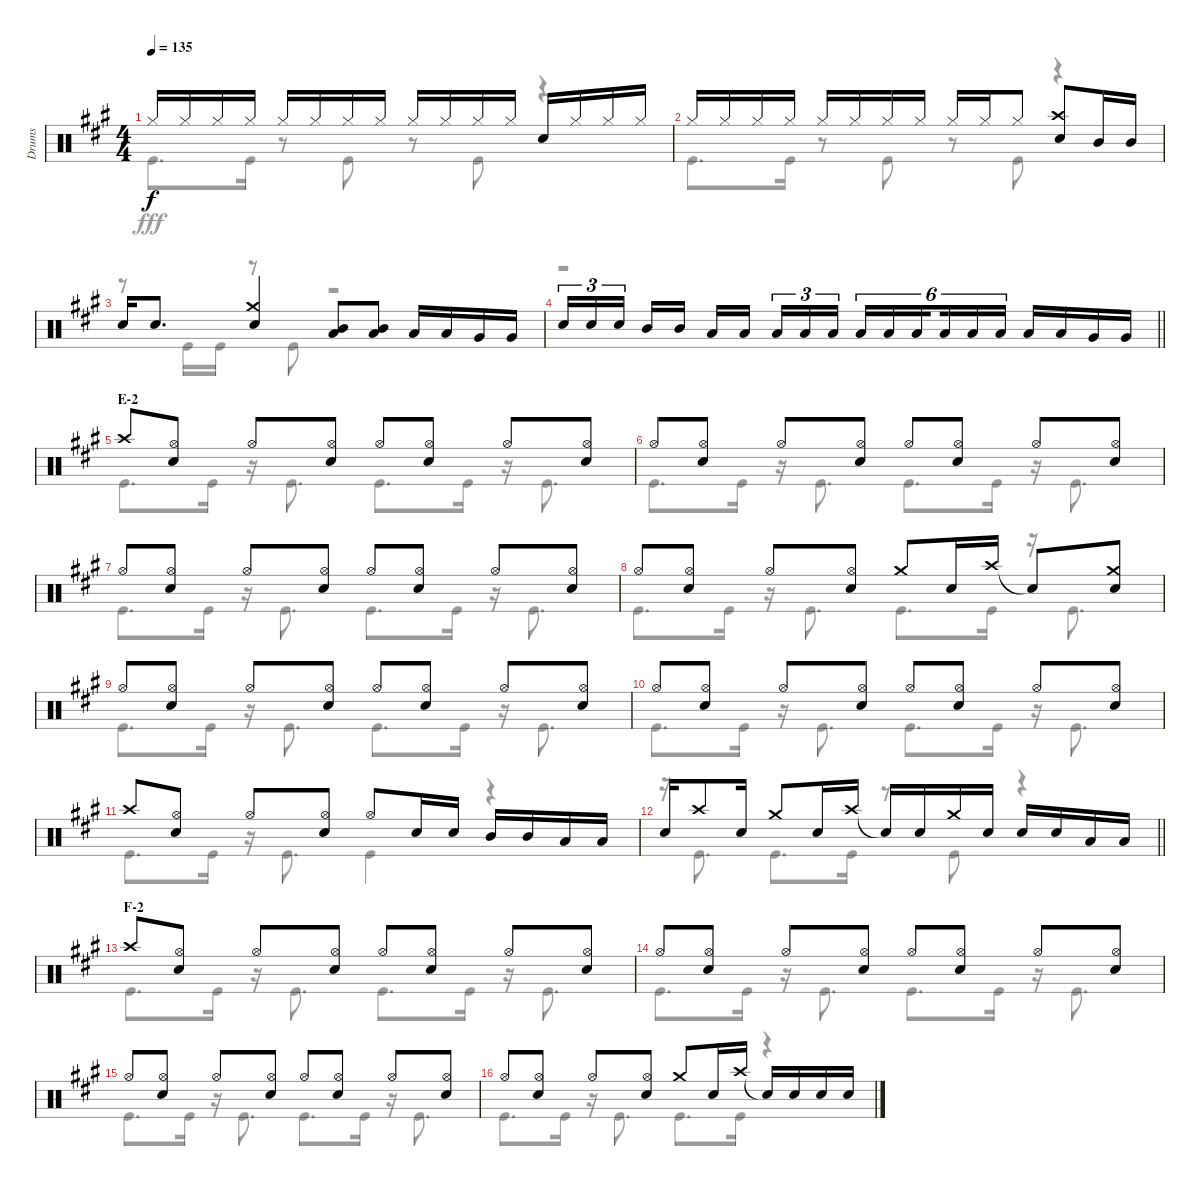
\track ("Drums" "Drums") {instrument percussion}
\staff {score}
\articulation defaults
\voice
\ts (4 4)
\tempo 135
\clef neutral
\ks a "Hi-Hat (closed)".16{dy f} "Hi-Hat (closed)".16 "Hi-Hat (closed)".16 "Hi-Hat (closed)".16 "Hi-Hat (closed)".16 "Hi-Hat (closed)".16 "Hi-Hat (closed)".16 "Hi-Hat (closed)".16 "Hi-Hat (closed)".16 "Hi-Hat (closed)".16 "Hi-Hat (closed)".16 "Hi-Hat (closed)".16 "Snare (hit) 2".16 "Hi-Hat (closed)".16 "Hi-Hat (closed)".16 "Hi-Hat (closed)".16
|
"Hi-Hat (closed)".16 "Hi-Hat (closed)".16 "Hi-Hat (closed)".16 "Hi-Hat (closed)".16 "Hi-Hat (closed)".16 "Hi-Hat (closed)".16 "Hi-Hat (closed)".16 "Hi-Hat (closed)".16 "Hi-Hat (closed)".16 "Hi-Hat (closed)".16 "Hi-Hat (closed)".8 ("Crash high (hit)" "Snare (hit) 2").8 "Mid Tom (hit)".16 "Mid Tom (hit)".16 |
"Snare (hit) 2".16 "Snare (hit) 2".8{d} ("Crash medium (hit)" "Snare (hit) 2").4 ("Mid Tom (hit)" "Low Tom (hit)").8 ("Mid Tom (hit)" "Low Tom (hit)").8 "Low Tom (hit)".16 "Low Tom (hit)".16 "Very Low Tom (hit)".16 "Very Low Tom (hit)".16 |
\barLineRight lightlight "Snare (hit) 2".16{tu (3 2)} "Snare (hit) 2".16{tu (3 2)} "Snare (hit) 2".16{tu (3 2) beam splitsecondary} "Mid Tom (hit)".16 "Mid Tom (hit)".16 "Low Tom (hit)".16 "Low Tom (hit)".16{beam splitsecondary} "Low Tom (hit)".16{tu (3 2)} "Low Tom (hit)".16{tu (3 2)} "Low Tom (hit)".16{tu (3 2)} "Low Tom (hit)".16{tu (6 4)} "Low Tom (hit)".16{tu (6 4)} "Low Tom (hit)".16{tu (6 4) beam splitsecondary} "Low Tom (hit)".16{tu (6 4)} "Low Tom (hit)".16{tu (6 4)} "Low Tom (hit)".16{tu (6 4)} "Low Tom (hit)".16 "Low Tom (hit)".16 "Very Low Tom (hit)".16 "Very Low Tom (hit)".16
|
\section ("" "E-2")
"Crash high (hit)".8 ("Hi-Hat (open)" "Snare (hit) 2").8 "Hi-Hat (open)".8 ("Hi-Hat (open)" "Snare (hit) 2").8 "Hi-Hat (open)".8 ("Hi-Hat (open)" "Snare (hit) 2").8 "Hi-Hat (open)".8 ("Hi-Hat (open)" "Snare (hit) 2").8 |
"Hi-Hat (open)".8 ("Hi-Hat (open)" "Snare (hit) 2").8 "Hi-Hat (open)".8 ("Hi-Hat (open)" "Snare (hit) 2").8 "Hi-Hat (open)".8 ("Hi-Hat (open)" "Snare (hit) 2").8 "Hi-Hat (open)".8 ("Hi-Hat (open)" "Snare (hit) 2").8 |
"Hi-Hat (open)".8 ("Hi-Hat (open)" "Snare (hit) 2").8 "Hi-Hat (open)".8 ("Hi-Hat (open)" "Snare (hit) 2").8 "Hi-Hat (open)".8 ("Hi-Hat (open)" "Snare (hit) 2").8 "Hi-Hat (open)".8 ("Hi-Hat (open)" "Snare (hit) 2").8 |
"Hi-Hat (open)".8 ("Hi-Hat (open)" "Snare (hit) 2").8 "Hi-Hat (open)".8 ("Hi-Hat (open)" "Snare (hit) 2").8 "Crash medium (hit)".8 "Snare (hit) 2".16 "Crash high (hit)".16 "Snare (hit)"{t}.8 ("Crash medium (hit)" "Snare (hit) 2").8 |
"Hi-Hat (open)".8 ("Hi-Hat (open)" "Snare (hit) 2").8 "Hi-Hat (open)".8 ("Hi-Hat (open)" "Snare (hit) 2").8 "Hi-Hat (open)".8 ("Hi-Hat (open)" "Snare (hit) 2").8 "Hi-Hat (open)".8 ("Hi-Hat (open)" "Snare (hit) 2").8 |
"Hi-Hat (open)".8 ("Hi-Hat (open)" "Snare (hit) 2").8 "Hi-Hat (open)".8 ("Hi-Hat (open)" "Snare (hit) 2").8 "Hi-Hat (open)".8 ("Hi-Hat (open)" "Snare (hit) 2").8 "Hi-Hat (open)".8 ("Hi-Hat (open)" "Snare (hit) 2").8 |
"Crash high (hit)".8 ("Hi-Hat (open)" "Snare (hit) 2").8 "Hi-Hat (open)".8 ("Hi-Hat (open)" "Snare (hit) 2").8 "Hi-Hat (open)".8 "Snare (hit) 2".16 "Snare (hit) 2".16 "Mid Tom (hit)".16 "Mid Tom (hit)".16 "Low Tom (hit)".16 "Low Tom (hit)".16 |
\barLineRight lightlight "Snare (hit) 2".16 "Crash high (hit)".8 "Snare (hit) 2".16 "Crash medium (hit)".8 "Snare (hit) 2".16 "Crash high (hit)".16 "Snare (hit)"{t}.16 "Snare (hit) 2".16 "Crash medium (hit)".16 "Snare (hit) 2".16 "Snare (hit) 2".16 "Snare (hit) 2".16 "Low Tom (hit)".16 "Low Tom (hit)".16
|
\section ("" "F-2")
"Crash high (hit)".8 ("Hi-Hat (open)" "Snare (hit) 2").8 "Hi-Hat (open)".8 ("Hi-Hat (open)" "Snare (hit) 2").8 "Hi-Hat (open)".8 ("Hi-Hat (open)" "Snare (hit) 2").8 "Hi-Hat (open)".8 ("Hi-Hat (open)" "Snare (hit) 2").8 |
"Hi-Hat (open)".8 ("Hi-Hat (open)" "Snare (hit) 2").8 "Hi-Hat (open)".8 ("Hi-Hat (open)" "Snare (hit) 2").8 "Hi-Hat (open)".8 ("Hi-Hat (open)" "Snare (hit) 2").8 "Hi-Hat (open)".8 ("Hi-Hat (open)" "Snare (hit) 2").8 |
"Hi-Hat (open)".8 ("Hi-Hat (open)" "Snare (hit) 2").8 "Hi-Hat (open)".8 ("Hi-Hat (open)" "Snare (hit) 2").8 "Hi-Hat (open)".8 ("Hi-Hat (open)" "Snare (hit) 2").8 "Hi-Hat (open)".8 ("Hi-Hat (open)" "Snare (hit) 2").8 |
"Hi-Hat (open)".8 ("Hi-Hat (open)" "Snare (hit) 2").8 "Hi-Hat (open)".8 ("Hi-Hat (open)" "Snare (hit) 2").8 "Crash medium (hit)".8 "Snare (hit) 2".16 "Crash high (hit)".16 "Snare (hit)"{t}.16 "Snare (hit) 2".16 "Snare (hit) 2".16 "Snare (hit) 2".16
\voice
\clef neutral
\ottava regular
\simile none
\ks a "Kick (hit)".8{d dy fff} "Kick (hit)".16
r.8 "Kick (hit)".8 r.8 "Kick (hit)".8 r.4 |
"Kick (hit)".8{d} "Kick (hit)".16 r.8 "Kick (hit)".8 r.8 "Kick (hit)".8 r.4 |
r.8 "Kick (hit)".16 "Kick (hit)".16 r.8 "Kick (hit)".8 r.2 |
\barLineRight lightlight
r.1 |
"Kick (hit)".8{d} "Kick (hit)".16 r.16 "Kick (hit)".8{d} "Kick (hit)".8{d} "Kick (hit)".16 r.16 "Kick (hit)".8{d} |
"Kick (hit)".8{d} "Kick (hit)".16 r.16 "Kick (hit)".8{d} "Kick (hit)".8{d} "Kick (hit)".16 r.16 "Kick (hit)".8{d} |
"Kick (hit)".8{d} "Kick (hit)".16 r.16 "Kick (hit)".8{d} "Kick (hit)".8{d} "Kick (hit)".16 r.16 "Kick (hit)".8{d} |
"Kick (hit)".8{d} "Kick (hit)".16 r.16 "Kick (hit)".8{d} "Kick (hit)".8{d} "Kick (hit)".16 r.16 "Kick (hit)".8{d} |
"Kick (hit)".8{d} "Kick (hit)".16 r.16 "Kick (hit)".8{d} "Kick (hit)".8{d} "Kick (hit)".16 r.16 "Kick (hit)".8{d} |
"Kick (hit)".8{d} "Kick (hit)".16 r.16 "Kick (hit)".8{d} "Kick (hit)".8{d} "Kick (hit)".16 r.16 "Kick (hit)".8{d} |
"Kick (hit)".8{d} "Kick (hit)".16 r.16 "Kick (hit)".8{d} "Kick (hit)".4 r.4 |
\barLineRight lightlight
r.16 "Kick (hit)".8{d} "Kick (hit)".8{d} "Kick (hit)".16 r.8 "Kick (hit)".8 r.4 |
"Kick (hit)".8{d} "Kick (hit)".16 r.16 "Kick (hit)".8{d} "Kick (hit)".8{d} "Kick (hit)".16 r.16 "Kick (hit)".8{d} |
"Kick (hit)".8{d} "Kick (hit)".16 r.16 "Kick (hit)".8{d} "Kick (hit)".8{d} "Kick (hit)".16 r.16 "Kick (hit)".8{d} |
"Kick (hit)".8{d} "Kick (hit)".16 r.16 "Kick (hit)".8{d} "Kick (hit)".8{d} "Kick (hit)".16 r.16 "Kick (hit)".8{d} |
"Kick (hit)".8{d} "Kick (hit)".16 r.16 "Kick (hit)".8{d} "Kick (hit)".8{d} "Kick (hit)".16 r.4
